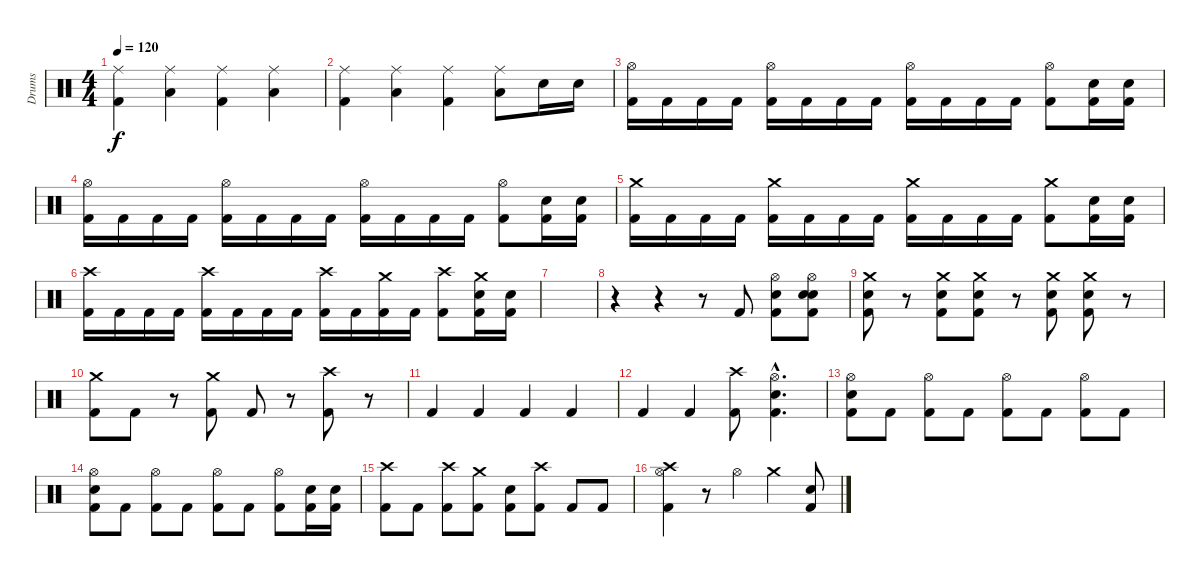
\track ("Drums" "Drums") {instrument percussion}
\staff {score}
\articulation defaults
\ts (4 4)
\tempo 120
\clef neutral
\ks c
("Ride (middle)" "Kick (hit) 2").4{dy f} ("Ride (middle)" "Low Floor Tom (hit)").4 ("Ride (middle)" "Kick (hit) 2").4 ("Ride (middle)" "Low Floor Tom (hit)").4 |
("Ride (middle)" "Kick (hit) 2").4 ("Ride (middle)" "Low Floor Tom (hit)").4 ("Ride (middle)" "Kick (hit) 2").4 ("Ride (middle)" "Low Floor Tom (hit)").8 "Snare (hit) 2".16 "Snare (hit) 2".16 |
("Hi-Hat (open)" "Kick (hit) 2").16 "Kick (hit) 2".16 "Kick (hit) 2".16 "Kick (hit) 2".16 ("Hi-Hat (open)" "Kick (hit) 2").16 "Kick (hit) 2".16 "Kick (hit) 2".16 "Kick (hit) 2".16 ("Hi-Hat (open)" "Kick (hit) 2").16 "Kick (hit) 2".16 "Kick (hit) 2".16 "Kick (hit) 2".16 ("Hi-Hat (open)" "Kick (hit) 2").8 ("Snare (hit) 2" "Kick (hit) 2").16 ("Snare (hit) 2" "Kick (hit) 2").16 |
("Hi-Hat (open)" "Kick (hit) 2").16 "Kick (hit) 2".16 "Kick (hit) 2".16 "Kick (hit) 2".16 ("Hi-Hat (open)" "Kick (hit) 2").16 "Kick (hit) 2".16 "Kick (hit) 2".16 "Kick (hit) 2".16 ("Hi-Hat (open)" "Kick (hit) 2").16 "Kick (hit) 2".16 "Kick (hit) 2".16 "Kick (hit) 2".16 ("Hi-Hat (open)" "Kick (hit) 2").8 ("Snare (hit) 2" "Kick (hit) 2").16 ("Snare (hit) 2" "Kick (hit) 2").16 |
("Crash medium (hit)" "Kick (hit) 2").16 "Kick (hit) 2".16 "Kick (hit) 2".16 "Kick (hit) 2".16 ("Crash medium (hit)" "Kick (hit) 2").16 "Kick (hit) 2".16 "Kick (hit) 2".16 "Kick (hit) 2".16 ("Crash medium (hit)" "Kick (hit) 2").16 "Kick (hit) 2".16 "Kick (hit) 2".16 "Kick (hit) 2".16 ("Crash medium (hit)" "Kick (hit) 2").8 ("Snare (hit) 2" "Kick (hit) 2").16 ("Snare (hit) 2" "Kick (hit) 2").16 |
("Crash high (hit)" "Kick (hit) 2").16 "Kick (hit) 2".16 "Kick (hit) 2".16 "Kick (hit) 2".16 ("Crash high (hit)" "Kick (hit) 2").16 "Kick (hit) 2".16 "Kick (hit) 2".16 "Kick (hit) 2".16 ("Crash high (hit)" "Kick (hit) 2").16 "Kick (hit) 2".16 ("Crash medium (hit)" "Kick (hit) 2").16 "Kick (hit) 2".16 ("Crash high (hit)" "Kick (hit) 2").8 ("Crash medium (hit)" "Snare (hit) 2" "Kick (hit) 2").16 ("Snare (hit) 2" "Kick (hit) 2").16 |
|
r.4 r.4 r.8 "Kick (hit) 2".8 ("Hi-Hat (open)" "Snare (hit) 2" "Kick (hit) 2").8 ("Hi-Hat (open)" "Snare (hit) 2" "Snare (hit) 2" "Kick (hit) 2").8 |
("Crash medium (hit)" "Snare (hit) 2" "Kick (hit) 2").8 r.8 ("Crash medium (hit)" "Snare (hit) 2" "Kick (hit) 2").8 ("Crash medium (hit)" "Snare (hit) 2" "Kick (hit) 2").8 r.8 ("Crash medium (hit)" "Snare (hit) 2" "Kick (hit) 2").8 ("Crash medium (hit)" "Snare (hit) 2" "Kick (hit) 2").8 r.8 |
("Crash medium (hit)" "Kick (hit) 2").8 "Kick (hit) 2".8 r.8 ("Crash medium (hit)" "Kick (hit) 2").8 "Kick (hit) 2".8 r.8 ("Crash high (hit)" "Kick (hit) 2").8 r.8 |
"Kick (hit) 2".4 "Kick (hit) 2".4 "Kick (hit) 2".4 "Kick (hit) 2".4 |
"Kick (hit) 2".4 "Kick (hit) 2".4 ("Crash high (hit)" "Kick (hit) 2").8 ("Hi-Hat (open)"{hac} "Snare (hit) 2"{hac} "Kick (hit) 2"{hac}).4{d} |
("Hi-Hat (open)" "Snare (hit) 2" "Kick (hit) 2").8 "Kick (hit) 2".8 ("Hi-Hat (open)" "Kick (hit) 2").8 "Kick (hit) 2".8 ("Hi-Hat (open)" "Kick (hit) 2").8 "Kick (hit) 2".8 ("Hi-Hat (open)" "Kick (hit) 2").8 "Kick (hit) 2".8 |
("Hi-Hat (open)" "Snare (hit) 2" "Kick (hit) 2").8 "Kick (hit) 2".8 ("Hi-Hat (open)" "Kick (hit) 2").8 "Kick (hit) 2".8 ("Hi-Hat (open)" "Kick (hit) 2").8 "Kick (hit) 2".8 ("Hi-Hat (open)" "Kick (hit) 2").8 ("Snare (hit) 2" "Kick (hit) 2").16 ("Snare (hit) 2" "Kick (hit) 2").16 |
("Crash high (hit)" "Kick (hit) 2").8 "Kick (hit) 2".8 ("Crash high (hit)" "Kick (hit) 2").8 ("Crash medium (hit)" "Kick (hit) 2").8 ("Snare (hit) 2" "Kick (hit) 2").8 ("Crash high (hit)" "Kick (hit) 2").8 "Kick (hit) 2".8 "Kick (hit) 2".8 |
("Hi-Hat (open)" "Crash high (hit)" "Kick (hit) 2").4 r.8 "Hi-Hat (open)".4 "Crash medium (hit)".4 ("Snare (hit) 2" "Kick (hit) 2").8
